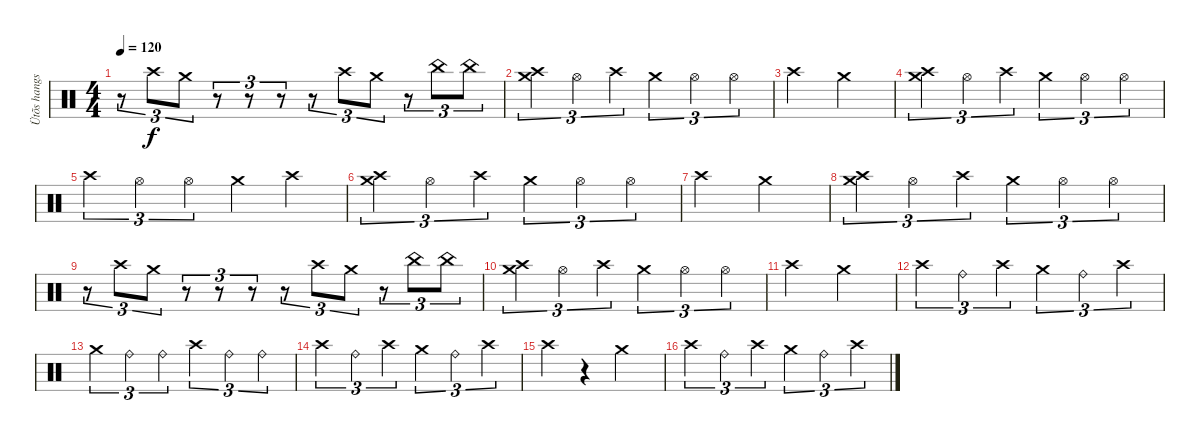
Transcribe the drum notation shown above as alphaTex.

\track ("Ütõs hangszer" "Ütõs hangs") {instrument percussion}
\staff {score}
\articulation defaults
\ts (4 4)
\tempo 120
\clef neutral
\ks c
r.8{tu (3 2) dy f} "Crash high (hit)".8{tu (3 2)} "Crash medium (hit)".8{tu (3 2)} r.8{tu (3 2)} r.8{tu (3 2)} r.8{tu (3 2)} r.8{tu (3 2)} "Crash high (hit)".8{tu (3 2)} "Crash medium (hit)".8{tu (3 2)} r.8{tu (3 2)} "China (hit)".8{tu (3 2)} "China (hit)".8{tu (3 2)} |
("Crash medium (hit)" "Crash high (hit)").4{tu (3 2)} "Hi-Hat (open)".4{tu (3 2)} "Crash high (hit)".4{tu (3 2)} "Crash medium (hit)".4{tu (3 2)} "Hi-Hat (open)".4{tu (3 2)} "Hi-Hat (open)".4{tu (3 2)} |
"Crash high (hit)".2 "Crash medium (hit)".2 |
("Crash medium (hit)" "Crash high (hit)").4{tu (3 2)} "Hi-Hat (open)".4{tu (3 2)} "Crash high (hit)".4{tu (3 2)} "Crash medium (hit)".4{tu (3 2)} "Hi-Hat (open)".4{tu (3 2)} "Hi-Hat (open)".4{tu (3 2)} |
"Crash high (hit)".4{tu (3 2)} "Hi-Hat (open)".4{tu (3 2)} "Hi-Hat (open)".4{tu (3 2)} "Crash medium (hit)".4 "Crash high (hit)".4 |
("Crash medium (hit)" "Crash high (hit)").4{tu (3 2)} "Hi-Hat (open)".4{tu (3 2)} "Crash high (hit)".4{tu (3 2)} "Crash medium (hit)".4{tu (3 2)} "Hi-Hat (open)".4{tu (3 2)} "Hi-Hat (open)".4{tu (3 2)} |
"Crash high (hit)".2 "Crash medium (hit)".2 |
("Crash medium (hit)" "Crash high (hit)").4{tu (3 2)} "Hi-Hat (open)".4{tu (3 2)} "Crash high (hit)".4{tu (3 2)} "Crash medium (hit)".4{tu (3 2)} "Hi-Hat (open)".4{tu (3 2)} "Hi-Hat (open)".4{tu (3 2)} |
r.8{tu (3 2)} "Crash high (hit)".8{tu (3 2)} "Crash medium (hit)".8{tu (3 2)} r.8{tu (3 2)} r.8{tu (3 2)} r.8{tu (3 2)} r.8{tu (3 2)} "Crash high (hit)".8{tu (3 2)} "Crash medium (hit)".8{tu (3 2)} r.8{tu (3 2)} "China (hit)".8{tu (3 2)} "China (hit)".8{tu (3 2)} |
("Crash medium (hit)" "Crash high (hit)").4{tu (3 2)} "Hi-Hat (open)".4{tu (3 2)} "Crash high (hit)".4{tu (3 2)} "Crash medium (hit)".4{tu (3 2)} "Hi-Hat (open)".4{tu (3 2)} "Hi-Hat (open)".4{tu (3 2)} |
"Crash high (hit)".2 "Crash medium (hit)".2 |
"Crash high (hit)".4{tu (3 2)} "Ride (bell)".4{tu (3 2)} "Crash high (hit)".4{tu (3 2)} "Crash medium (hit)".4{tu (3 2)} "Ride (bell)".4{tu (3 2)} "Crash high (hit)".4{tu (3 2)} |
"Crash medium (hit)".4{tu (3 2)} "Ride (bell)".4{tu (3 2)} "Ride (bell)".4{tu (3 2)} "Crash high (hit)".4{tu (3 2)} "Ride (bell)".4{tu (3 2)} "Ride (bell)".4{tu (3 2)} |
"Crash high (hit)".4{tu (3 2)} "Ride (bell)".4{tu (3 2)} "Crash high (hit)".4{tu (3 2)} "Crash medium (hit)".4{tu (3 2)} "Ride (bell)".4{tu (3 2)} "Crash high (hit)".4{tu (3 2)} |
"Crash high (hit)".4 r.4 "Crash medium (hit)".2 |
"Crash high (hit)".4{tu (3 2)} "Ride (bell)".4{tu (3 2)} "Crash high (hit)".4{tu (3 2)} "Crash medium (hit)".4{tu (3 2)} "Ride (bell)".4{tu (3 2)} "Crash high (hit)".4{tu (3 2)}
